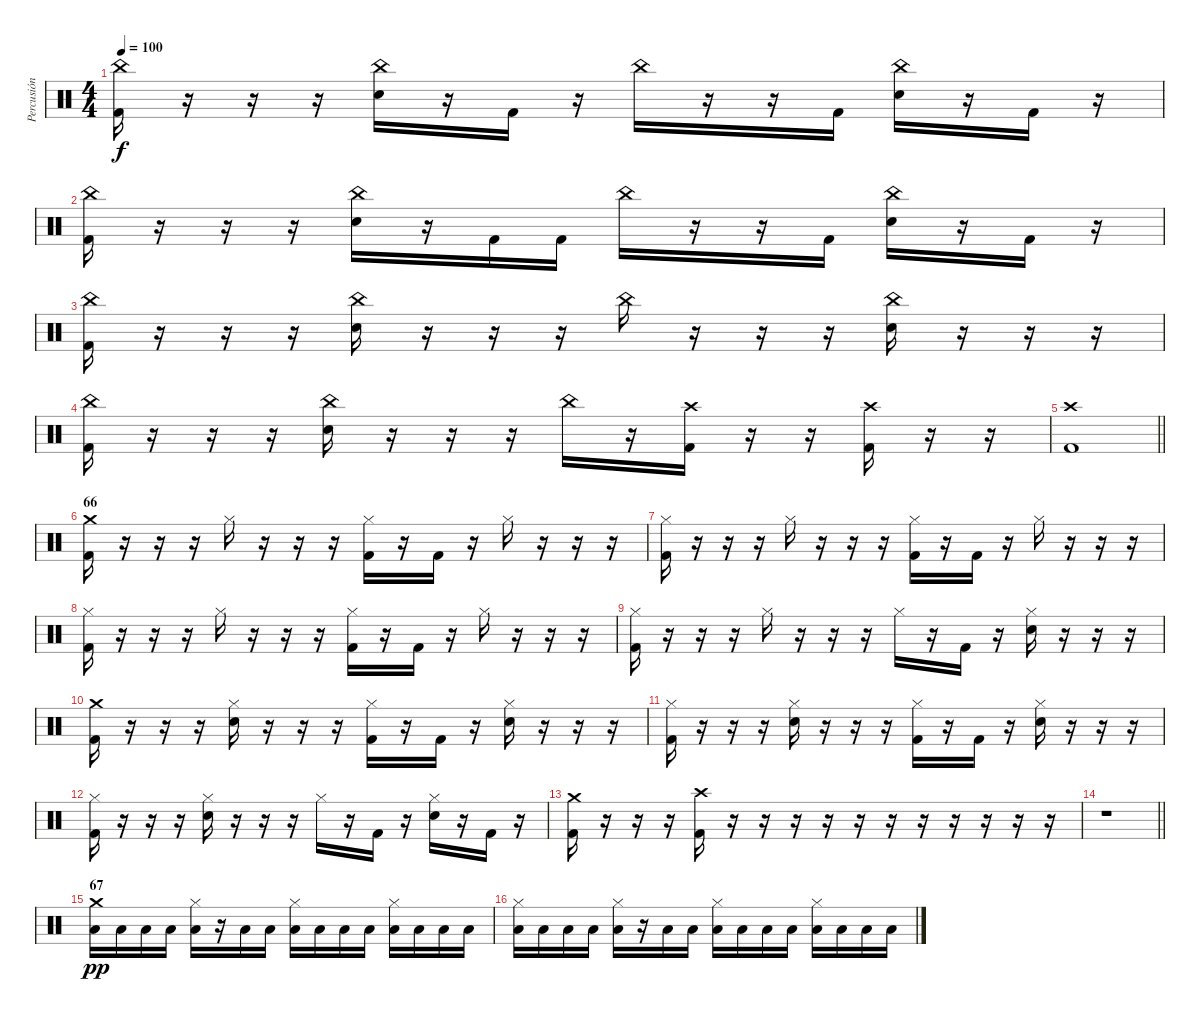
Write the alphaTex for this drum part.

\track ("Percusión" "Percusión") {instrument percussion}
\staff {score}
\articulation defaults
\ts (4 4)
\tempo 100
\clef neutral
\ks c
("China (hit)" "Kick (hit) 2").16{dy f} r.16 r.16 r.16 ("China (hit)" "Electric Snare (hit)").16 r.16 "Kick (hit) 2".16 r.16 "China (hit)".16 r.16 r.16 "Kick (hit) 2".16 ("China (hit)" "Electric Snare (hit)").16 r.16 "Kick (hit) 2".16 r.16 |
("China (hit)" "Kick (hit) 2").16 r.16 r.16 r.16 ("China (hit)" "Electric Snare (hit)").16 r.16 "Kick (hit) 2".16 "Kick (hit) 2".16 "China (hit)".16 r.16 r.16 "Kick (hit) 2".16 ("China (hit)" "Electric Snare (hit)").16 r.16 "Kick (hit) 2".16 r.16 |
("China (hit)" "Kick (hit) 2").16 r.16 r.16 r.16 ("China (hit)" "Electric Snare (hit)").16 r.16 r.16 r.16 "China (hit)".16 r.16 r.16 r.16 ("China (hit)" "Electric Snare (hit)").16 r.16 r.16 r.16 |
("China (hit)" "Kick (hit) 2").16 r.16 r.16 r.16 ("China (hit)" "Electric Snare (hit)").16 r.16 r.16 r.16 "China (hit)".16 r.16 ("Crash high (hit)" "Kick (hit) 2").16 r.16 r.16 ("Crash high (hit)" "Kick (hit) 2").16 r.16 r.16 |
\barLineRight lightlight
("Crash high (hit)" "Kick (hit) 2").1 |
\section ("" "66")
("Crash medium (hit)" "Kick (hit) 2").16 r.16 r.16 r.16 "Hi-Hat (closed)".16 r.16 r.16 r.16 ("Hi-Hat (closed)" "Kick (hit) 2").16 r.16 "Kick (hit) 2".16 r.16 "Hi-Hat (closed)".16 r.16 r.16 r.16 |
("Hi-Hat (closed)" "Kick (hit) 2").16 r.16 r.16 r.16 "Hi-Hat (closed)".16 r.16 r.16 r.16 ("Hi-Hat (closed)" "Kick (hit) 2").16 r.16 "Kick (hit) 2".16 r.16 "Hi-Hat (closed)".16 r.16 r.16 r.16 |
("Hi-Hat (closed)" "Kick (hit) 2").16 r.16 r.16 r.16 "Hi-Hat (closed)".16 r.16 r.16 r.16 ("Hi-Hat (closed)" "Kick (hit) 2").16 r.16 "Kick (hit) 2".16 r.16 "Hi-Hat (closed)".16 r.16 r.16 r.16 |
("Hi-Hat (closed)" "Kick (hit) 2").16 r.16 r.16 r.16 "Hi-Hat (closed)".16 r.16 r.16 r.16 "Hi-Hat (closed)".16 r.16 "Kick (hit) 2".16 r.16 ("Hi-Hat (closed)" "Electric Snare (hit)").16 r.16 r.16 r.16 |
("Crash medium (hit)" "Kick (hit) 2").16 r.16 r.16 r.16 ("Hi-Hat (closed)" "Electric Snare (hit)").16 r.16 r.16 r.16 ("Hi-Hat (closed)" "Kick (hit) 2").16 r.16 "Kick (hit) 2".16 r.16 ("Hi-Hat (closed)" "Electric Snare (hit)").16 r.16 r.16 r.16 |
("Hi-Hat (closed)" "Kick (hit) 2").16 r.16 r.16 r.16 ("Hi-Hat (closed)" "Electric Snare (hit)").16 r.16 r.16 r.16 ("Hi-Hat (closed)" "Kick (hit) 2").16 r.16 "Kick (hit) 2".16 r.16 ("Hi-Hat (closed)" "Electric Snare (hit)").16 r.16 r.16 r.16 |
("Hi-Hat (closed)" "Kick (hit) 2").16 r.16 r.16 r.16 ("Hi-Hat (closed)" "Electric Snare (hit)").16 r.16 r.16 r.16 "Hi-Hat (closed)".16 r.16 "Kick (hit) 2".16 r.16 ("Hi-Hat (closed)" "Electric Snare (hit)").16 r.16 "Kick (hit) 2".16 r.16 |
("Crash medium (hit)" "Kick (hit) 2").16 r.16 r.16 r.16 ("Crash high (hit)" "Kick (hit) 2").16 r.16 r.16 r.16 r.16 r.16 r.16 r.16 r.16 r.16 r.16 r.16 |
\barLineRight lightlight
r.1 |
\section ("" "67")
("Crash medium (hit)" "Low Floor Tom (hit)").16{dy pp} "Low Floor Tom (hit)".16 "Low Floor Tom (hit)".16 "Low Floor Tom (hit)".16 ("Hi-Hat (closed)" "Low Floor Tom (hit)").16 r.16 "Low Floor Tom (hit)".16 "Low Floor Tom (hit)".16 ("Hi-Hat (closed)" "Low Floor Tom (hit)").16 "Low Floor Tom (hit)".16 "Low Floor Tom (hit)".16 "Low Floor Tom (hit)".16 ("Hi-Hat (closed)" "Low Floor Tom (hit)").16 "Low Floor Tom (hit)".16 "Low Floor Tom (hit)".16 "Low Floor Tom (hit)".16 |
("Hi-Hat (closed)" "Low Floor Tom (hit)").16 "Low Floor Tom (hit)".16 "Low Floor Tom (hit)".16 "Low Floor Tom (hit)".16 ("Hi-Hat (closed)" "Low Floor Tom (hit)").16 r.16 "Low Floor Tom (hit)".16 "Low Floor Tom (hit)".16 ("Hi-Hat (closed)" "Low Floor Tom (hit)").16 "Low Floor Tom (hit)".16 "Low Floor Tom (hit)".16 "Low Floor Tom (hit)".16 ("Hi-Hat (closed)" "Low Floor Tom (hit)").16 "Low Floor Tom (hit)".16 "Low Floor Tom (hit)".16 "Low Floor Tom (hit)".16
